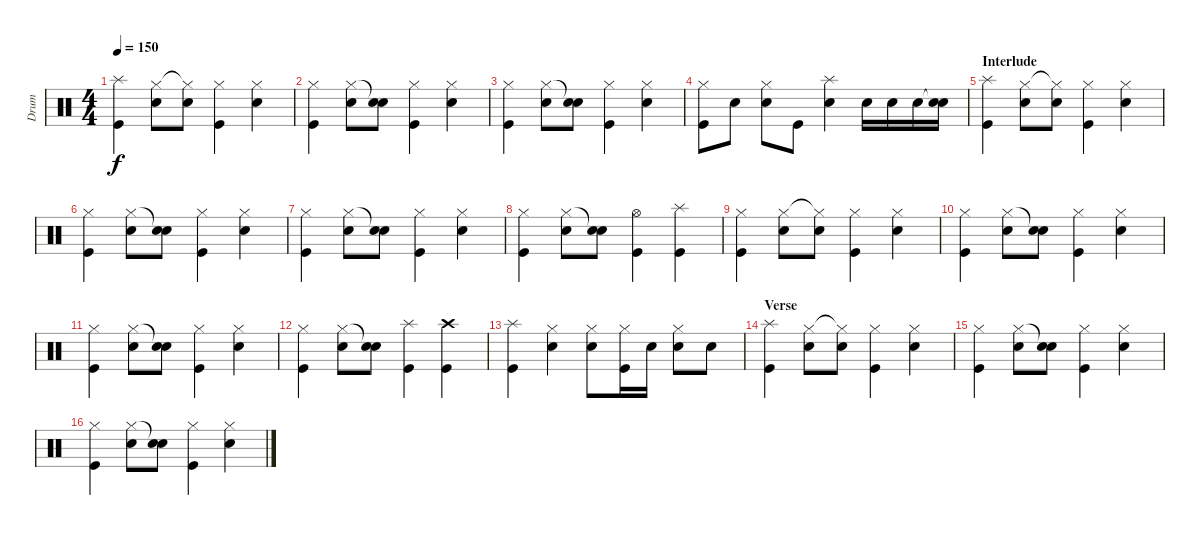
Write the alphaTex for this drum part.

\track ("Drum" "Drum") {instrument percussion}
\staff {score}
\articulation defaults
\ts (4 4)
\tempo 150
\clef neutral
\ks c
("Splash (hit)" "Kick (hit)").4{dy f} ("Hi-Hat (closed)" "Snare (hit) 2").8 ("Hi-Hat (closed)"{t} "Snare (hit) 2").8 ("Hi-Hat (closed)" "Kick (hit)").4 ("Hi-Hat (closed)" "Snare (hit) 2").4 |
("Hi-Hat (closed)" "Kick (hit)").4 ("Hi-Hat (closed)" "Snare (hit) 2").8 ("Snare (hit)"{t} "Snare (hit) 2").8 ("Hi-Hat (closed)" "Kick (hit)").4 ("Hi-Hat (closed)" "Snare (hit) 2").4 |
("Hi-Hat (closed)" "Kick (hit)").4 ("Hi-Hat (closed)" "Snare (hit) 2").8 ("Snare (hit)"{t} "Snare (hit) 2").8 ("Hi-Hat (closed)" "Kick (hit)").4 ("Hi-Hat (closed)" "Snare (hit) 2").4 |
("Hi-Hat (closed)" "Kick (hit)").8 "Snare (hit) 2".8 ("Hi-Hat (closed)" "Snare (hit) 2").8 "Kick (hit)".8 ("Splash (hit)" "Snare (hit) 2").4 "Snare (hit) 2".16 "Snare (hit) 2".16 "Snare (hit) 2".16 ("Snare (hit)"{t} "Snare (hit) 2").16 |
\section ("" "Interlude")
("Splash (hit)" "Kick (hit)").4 ("Hi-Hat (closed)" "Snare (hit) 2").8 ("Hi-Hat (closed)"{t} "Snare (hit) 2").8 ("Hi-Hat (closed)" "Kick (hit)").4 ("Hi-Hat (closed)" "Snare (hit) 2").4 |
("Hi-Hat (closed)" "Kick (hit)").4 ("Hi-Hat (closed)" "Snare (hit) 2").8 ("Snare (hit)"{t} "Snare (hit) 2").8 ("Hi-Hat (closed)" "Kick (hit)").4 ("Hi-Hat (closed)" "Snare (hit) 2").4 |
("Hi-Hat (closed)" "Kick (hit)").4 ("Hi-Hat (closed)" "Snare (hit) 2").8 ("Snare (hit)"{t} "Snare (hit) 2").8 ("Hi-Hat (closed)" "Kick (hit)").4 ("Hi-Hat (closed)" "Snare (hit) 2").4 |
("Hi-Hat (closed)" "Kick (hit)").4 ("Hi-Hat (closed)" "Snare (hit) 2").8 ("Snare (hit)"{t} "Snare (hit) 2").8 ("Hi-Hat (open)" "Kick (hit)").4 ("Splash (hit)" "Kick (hit)").4 |
("Hi-Hat (closed)" "Kick (hit)").4 ("Hi-Hat (closed)" "Snare (hit) 2").8 ("Hi-Hat (closed)"{t} "Snare (hit) 2").8 ("Hi-Hat (closed)" "Kick (hit)").4 ("Hi-Hat (closed)" "Snare (hit) 2").4 |
("Hi-Hat (closed)" "Kick (hit)").4 ("Hi-Hat (closed)" "Snare (hit) 2").8 ("Snare (hit)"{t} "Snare (hit) 2").8 ("Hi-Hat (closed)" "Kick (hit)").4 ("Hi-Hat (closed)" "Snare (hit) 2").4 |
("Hi-Hat (closed)" "Kick (hit)").4 ("Hi-Hat (closed)" "Snare (hit) 2").8 ("Snare (hit)"{t} "Snare (hit) 2").8 ("Hi-Hat (closed)" "Kick (hit)").4 ("Hi-Hat (closed)" "Snare (hit) 2").4 |
("Hi-Hat (closed)" "Kick (hit)").4 ("Hi-Hat (closed)" "Snare (hit) 2").8 ("Snare (hit)"{t} "Snare (hit) 2").8 ("Splash (hit)" "Kick (hit)").4 ("Crash high (hit)" "Kick (hit)").4 |
("Splash (hit)" "Kick (hit)").4 ("Hi-Hat (closed)" "Snare (hit) 2").4 ("Hi-Hat (closed)" "Snare (hit) 2").8 ("Hi-Hat (closed)" "Kick (hit)").16 "Snare (hit) 2".16 ("Hi-Hat (closed)" "Snare (hit) 2").8 "Snare (hit) 2".8 |
\section ("" "Verse")
("Splash (hit)" "Kick (hit)").4 ("Hi-Hat (closed)" "Snare (hit) 2").8 ("Hi-Hat (closed)"{t} "Snare (hit) 2").8 ("Hi-Hat (closed)" "Kick (hit)").4 ("Hi-Hat (closed)" "Snare (hit) 2").4 |
("Hi-Hat (closed)" "Kick (hit)").4 ("Hi-Hat (closed)" "Snare (hit) 2").8 ("Snare (hit)"{t} "Snare (hit) 2").8 ("Hi-Hat (closed)" "Kick (hit)").4 ("Hi-Hat (closed)" "Snare (hit) 2").4 |
("Hi-Hat (closed)" "Kick (hit)").4 ("Hi-Hat (closed)" "Snare (hit) 2").8 ("Snare (hit)"{t} "Snare (hit) 2").8 ("Hi-Hat (closed)" "Kick (hit)").4 ("Hi-Hat (closed)" "Snare (hit) 2").4
